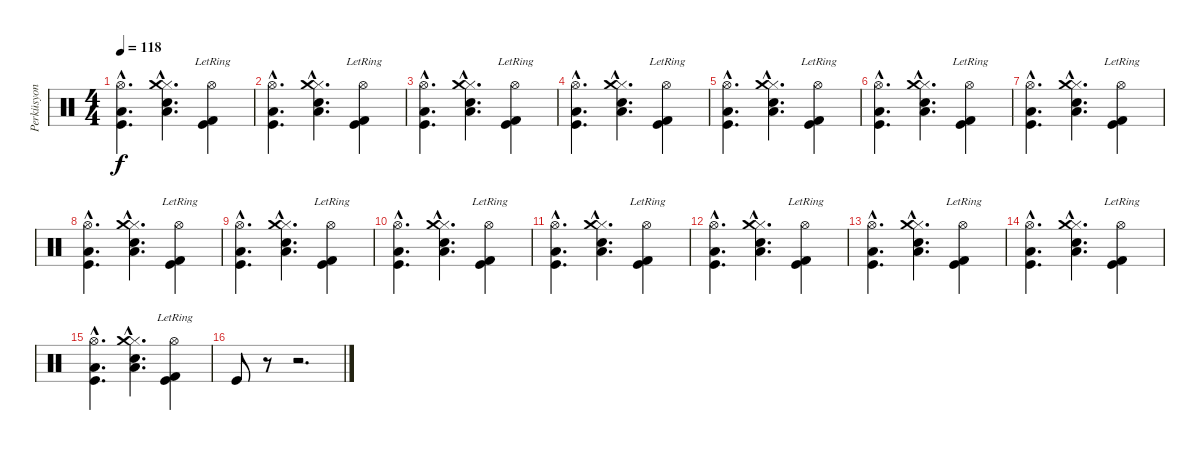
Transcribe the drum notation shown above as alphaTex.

\track ("Perküsyon" "Perküsyon") {instrument percussion}
\staff {score}
\articulation defaults
\ts (4 4)
\tempo 118
\clef neutral
\ks c
("Hi-Hat (open)"{hac} "Low Tom (hit)"{hac} "Kick (hit)"{hac}).4{d dy f} ("Low Floor Tom (hit)"{hac} "Hi-Hat (closed)"{hac} "Snare (hit)"{hac} "Crash medium (hit)"{hac}).4{d} ("Hi-Hat (open)"{lr} "Kick (hit) 2" "Kick (hit)").4 |
("Hi-Hat (open)"{hac} "Low Tom (hit)"{hac} "Kick (hit)"{hac}).4{d} ("Low Floor Tom (hit)"{hac} "Hi-Hat (closed)"{hac} "Snare (hit)"{hac} "Crash medium (hit)"{hac}).4{d} ("Hi-Hat (open)"{lr} "Kick (hit) 2" "Kick (hit)").4 |
("Hi-Hat (open)"{hac} "Low Tom (hit)"{hac} "Kick (hit)"{hac}).4{d} ("Low Floor Tom (hit)"{hac} "Hi-Hat (closed)"{hac} "Snare (hit)"{hac} "Crash medium (hit)"{hac}).4{d} ("Hi-Hat (open)"{lr} "Kick (hit) 2" "Kick (hit)").4 |
("Hi-Hat (open)"{hac} "Low Tom (hit)"{hac} "Kick (hit)"{hac}).4{d} ("Low Floor Tom (hit)"{hac} "Hi-Hat (closed)"{hac} "Snare (hit)"{hac} "Crash medium (hit)"{hac}).4{d} ("Hi-Hat (open)"{lr} "Kick (hit) 2" "Kick (hit)").4 |
("Hi-Hat (open)"{hac} "Low Tom (hit)"{hac} "Kick (hit)"{hac}).4{d} ("Low Floor Tom (hit)"{hac} "Hi-Hat (closed)"{hac} "Snare (hit)"{hac} "Crash medium (hit)"{hac}).4{d} ("Hi-Hat (open)"{lr} "Kick (hit) 2" "Kick (hit)").4 |
("Hi-Hat (open)"{hac} "Low Tom (hit)"{hac} "Kick (hit)"{hac}).4{d} ("Low Floor Tom (hit)"{hac} "Hi-Hat (closed)"{hac} "Snare (hit)"{hac} "Crash medium (hit)"{hac}).4{d} ("Hi-Hat (open)"{lr} "Kick (hit) 2" "Kick (hit)").4 |
("Hi-Hat (open)"{hac} "Low Tom (hit)"{hac} "Kick (hit)"{hac}).4{d} ("Low Floor Tom (hit)"{hac} "Hi-Hat (closed)"{hac} "Snare (hit)"{hac} "Crash medium (hit)"{hac}).4{d} ("Hi-Hat (open)"{lr} "Kick (hit) 2" "Kick (hit)").4 |
("Hi-Hat (open)"{hac} "Low Tom (hit)"{hac} "Kick (hit)"{hac}).4{d} ("Low Floor Tom (hit)"{hac} "Hi-Hat (closed)"{hac} "Snare (hit)"{hac} "Crash medium (hit)"{hac}).4{d} ("Hi-Hat (open)"{lr} "Kick (hit) 2" "Kick (hit)").4 |
("Hi-Hat (open)"{hac} "Low Tom (hit)"{hac} "Kick (hit)"{hac}).4{d} ("Low Floor Tom (hit)"{hac} "Hi-Hat (closed)"{hac} "Snare (hit)"{hac} "Crash medium (hit)"{hac}).4{d} ("Hi-Hat (open)"{lr} "Kick (hit) 2" "Kick (hit)").4 |
("Hi-Hat (open)"{hac} "Low Tom (hit)"{hac} "Kick (hit)"{hac}).4{d} ("Low Floor Tom (hit)"{hac} "Hi-Hat (closed)"{hac} "Snare (hit)"{hac} "Crash medium (hit)"{hac}).4{d} ("Hi-Hat (open)"{lr} "Kick (hit) 2" "Kick (hit)").4 |
("Hi-Hat (open)"{hac} "Low Tom (hit)"{hac} "Kick (hit)"{hac}).4{d} ("Low Floor Tom (hit)"{hac} "Hi-Hat (closed)"{hac} "Snare (hit)"{hac} "Crash medium (hit)"{hac}).4{d} ("Hi-Hat (open)"{lr} "Kick (hit) 2" "Kick (hit)").4 |
("Hi-Hat (open)"{hac} "Low Tom (hit)"{hac} "Kick (hit)"{hac}).4{d} ("Low Floor Tom (hit)"{hac} "Hi-Hat (closed)"{hac} "Snare (hit)"{hac} "Crash medium (hit)"{hac}).4{d} ("Hi-Hat (open)"{lr} "Kick (hit) 2" "Kick (hit)").4 |
("Hi-Hat (open)"{hac} "Low Tom (hit)"{hac} "Kick (hit)"{hac}).4{d} ("Low Floor Tom (hit)"{hac} "Hi-Hat (closed)"{hac} "Snare (hit)"{hac} "Crash medium (hit)"{hac}).4{d} ("Hi-Hat (open)"{lr} "Kick (hit) 2" "Kick (hit)").4 |
("Hi-Hat (open)"{hac} "Low Tom (hit)"{hac} "Kick (hit)"{hac}).4{d} ("Low Floor Tom (hit)"{hac} "Hi-Hat (closed)"{hac} "Snare (hit)"{hac} "Crash medium (hit)"{hac}).4{d} ("Hi-Hat (open)"{lr} "Kick (hit) 2" "Kick (hit)").4 |
("Hi-Hat (open)"{hac} "Low Tom (hit)"{hac} "Kick (hit)"{hac}).4{d} ("Low Floor Tom (hit)"{hac} "Hi-Hat (closed)"{hac} "Snare (hit)"{hac} "Crash medium (hit)"{hac}).4{d} ("Hi-Hat (open)"{lr} "Kick (hit) 2" "Kick (hit)").4 |
"Kick (hit)".8 r.8 r.2{d}
